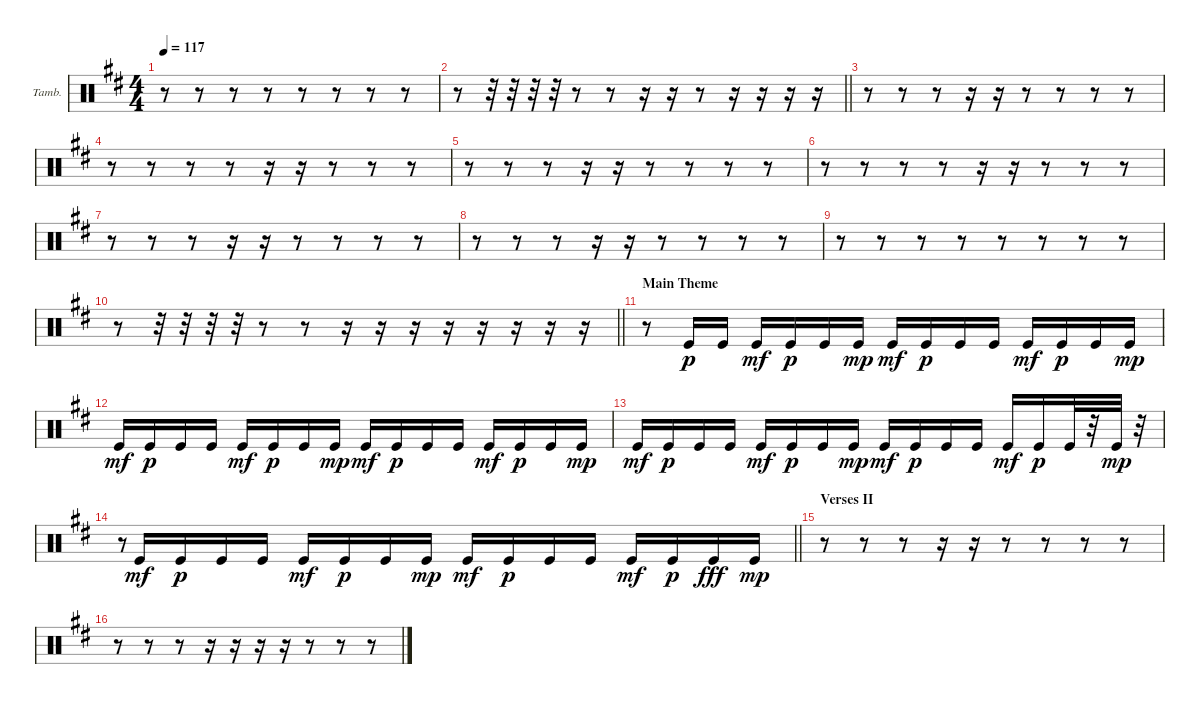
\bracketExtendMode groupsimilarinstruments
\firstSystemTrackNameOrientation horizontal
\otherSystemsTrackNameOrientation horizontal
\track ("Tambourine" "Tamb.") {instrument percussion}
\staff {score}
\articulation defaults
\ts (4 4)
\tempo 117
\clef neutral
\ks d
r.8{dy mp} r.8 r.8 r.8 r.8 r.8 r.8 r.8 |
\barLineRight lightlight
r.8 r.32 r.32 r.32 r.32 r.8 r.8 r.16 r.16 r.8 r.16 r.16 r.16 r.16 |
r.8 r.8 r.8 r.16 r.16 r.8 r.8 r.8 r.8 |
r.8 r.8 r.8 r.8 r.16 r.16 r.8 r.8 r.8 |
r.8 r.8 r.8 r.16 r.16 r.8 r.8 r.8 r.8 |
r.8 r.8 r.8 r.8 r.16 r.16 r.8 r.8 r.8 |
r.8 r.8 r.8 r.16 r.16 r.8 r.8 r.8 r.8 |
r.8 r.8 r.8 r.16 r.16 r.8 r.8 r.8 r.8 |
r.8 r.8 r.8 r.8 r.8 r.8 r.8 r.8 |
\barLineRight lightlight
r.8 r.32 r.32 r.32 r.32 r.8 r.8 r.16 r.16 r.16 r.16 r.16 r.16 r.16 r.16 |
\section ("" "Main Theme")
r.8 "Kick (hit)".16{dy p} "Kick (hit)".16 "Kick (hit)".16{dy mf} "Kick (hit)".16{dy p} "Kick (hit)".16 "Kick (hit)".16{dy mp} "Kick (hit)".16{dy mf} "Kick (hit)".16{dy p} "Kick (hit)".16 "Kick (hit)".16 "Kick (hit)".16{dy mf} "Kick (hit)".16{dy p} "Kick (hit)".16 "Kick (hit)".16{dy mp} |
"Kick (hit)".16{dy mf} "Kick (hit)".16{dy p} "Kick (hit)".16 "Kick (hit)".16 "Kick (hit)".16{dy mf} "Kick (hit)".16{dy p} "Kick (hit)".16 "Kick (hit)".16{dy mp} "Kick (hit)".16{dy mf} "Kick (hit)".16{dy p} "Kick (hit)".16 "Kick (hit)".16 "Kick (hit)".16{dy mf} "Kick (hit)".16{dy p} "Kick (hit)".16 "Kick (hit)".16{dy mp} |
"Kick (hit)".16{dy mf} "Kick (hit)".16{dy p} "Kick (hit)".16 "Kick (hit)".16 "Kick (hit)".16{dy mf} "Kick (hit)".16{dy p} "Kick (hit)".16 "Kick (hit)".16{dy mp} "Kick (hit)".16{dy mf} "Kick (hit)".16{dy p} "Kick (hit)".16 "Kick (hit)".16 "Kick (hit)".16{dy mf} "Kick (hit)".16{dy p} "Kick (hit)".32 r.32 "Kick (hit)".32{dy mp} r.32 |
\barLineRight lightlight
r.8{gr} "Kick (hit)".16{dy mf} "Kick (hit)".16{dy p} "Kick (hit)".16 "Kick (hit)".16 "Kick (hit)".16{dy mf} "Kick (hit)".16{dy p} "Kick (hit)".16 "Kick (hit)".16{dy mp} "Kick (hit)".16{dy mf} "Kick (hit)".16{dy p} "Kick (hit)".16 "Kick (hit)".16 "Kick (hit)".16{dy mf} "Kick (hit)".16{dy p} "Kick (hit)".16{dy fff} "Kick (hit)".16{dy mp} |
\section ("" "Verses II")
r.8 r.8 r.8 r.16 r.16 r.8 r.8 r.8 r.8 |
r.8 r.8 r.8 r.16 r.16 r.16 r.16 r.8 r.8 r.8
